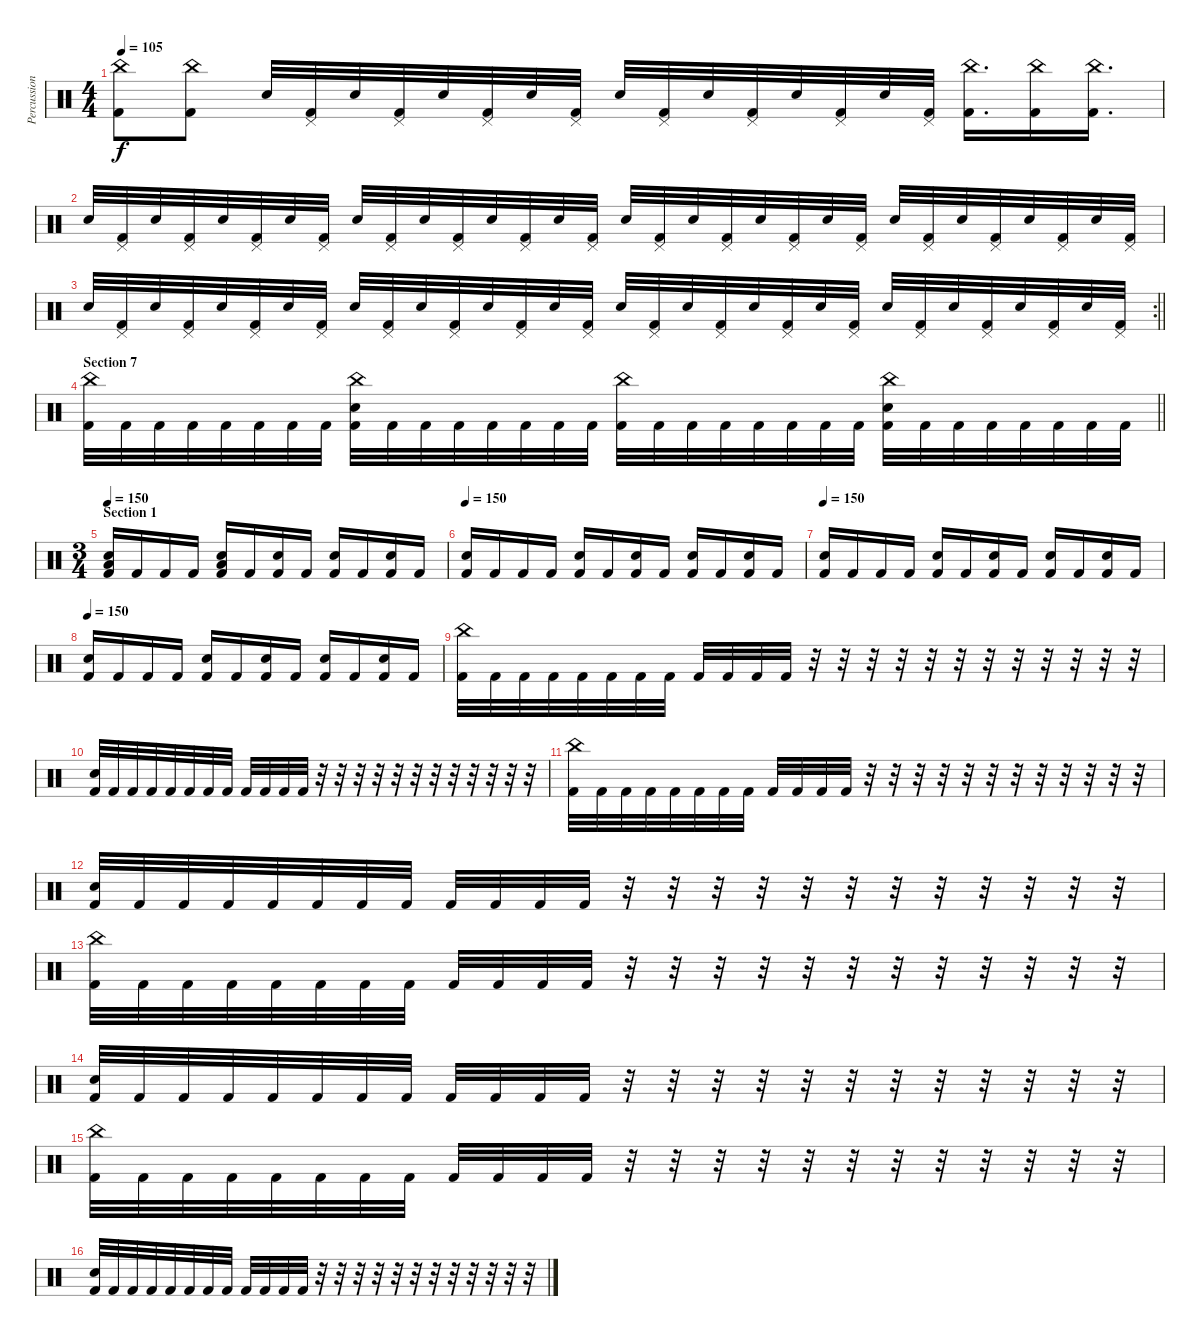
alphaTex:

\track ("Percussions" "Percussion") {instrument percussion}
\staff {score}
\articulation defaults
\ts (4 4)
\tempo 105
\clef neutral
\ks c
("China (hit)" "Kick (hit) 2").8{dy f} ("China (hit)" "Kick (hit) 2").8 "Electric Snare (hit)".32 ("Pedal Hi-Hat (hit)" "Kick (hit) 2").32 "Electric Snare (hit)".32 ("Pedal Hi-Hat (hit)" "Kick (hit) 2").32 "Electric Snare (hit)".32 ("Pedal Hi-Hat (hit)" "Kick (hit) 2").32 "Electric Snare (hit)".32 ("Pedal Hi-Hat (hit)" "Kick (hit) 2").32 "Electric Snare (hit)".32 ("Pedal Hi-Hat (hit)" "Kick (hit) 2").32 "Electric Snare (hit)".32 ("Pedal Hi-Hat (hit)" "Kick (hit) 2").32 "Electric Snare (hit)".32 ("Pedal Hi-Hat (hit)" "Kick (hit) 2").32 "Electric Snare (hit)".32 ("Pedal Hi-Hat (hit)" "Kick (hit) 2").32 ("China (hit)" "Kick (hit) 2").16{d} ("China (hit)" "Kick (hit) 2").16 ("China (hit)" "Kick (hit) 2").16{d} |
"Electric Snare (hit)".32 ("Pedal Hi-Hat (hit)" "Kick (hit) 2").32 "Electric Snare (hit)".32 ("Pedal Hi-Hat (hit)" "Kick (hit) 2").32 "Electric Snare (hit)".32 ("Pedal Hi-Hat (hit)" "Kick (hit) 2").32 "Electric Snare (hit)".32 ("Pedal Hi-Hat (hit)" "Kick (hit) 2").32 "Electric Snare (hit)".32 ("Pedal Hi-Hat (hit)" "Kick (hit) 2").32 "Electric Snare (hit)".32 ("Pedal Hi-Hat (hit)" "Kick (hit) 2").32 "Electric Snare (hit)".32 ("Pedal Hi-Hat (hit)" "Kick (hit) 2").32 "Electric Snare (hit)".32 ("Pedal Hi-Hat (hit)" "Kick (hit) 2").32 "Electric Snare (hit)".32 ("Pedal Hi-Hat (hit)" "Kick (hit) 2").32 "Electric Snare (hit)".32 ("Pedal Hi-Hat (hit)" "Kick (hit) 2").32 "Electric Snare (hit)".32 ("Pedal Hi-Hat (hit)" "Kick (hit) 2").32 "Electric Snare (hit)".32 ("Pedal Hi-Hat (hit)" "Kick (hit) 2").32 "Electric Snare (hit)".32 ("Pedal Hi-Hat (hit)" "Kick (hit) 2").32 "Electric Snare (hit)".32 ("Pedal Hi-Hat (hit)" "Kick (hit) 2").32 "Electric Snare (hit)".32 ("Pedal Hi-Hat (hit)" "Kick (hit) 2").32 "Electric Snare (hit)".32 ("Pedal Hi-Hat (hit)" "Kick (hit) 2").32 |
\rc 2
\barLineRight lightlight "Electric Snare (hit)".32
("Pedal Hi-Hat (hit)" "Kick (hit) 2").32 "Electric Snare (hit)".32 ("Pedal Hi-Hat (hit)" "Kick (hit) 2").32 "Electric Snare (hit)".32 ("Pedal Hi-Hat (hit)" "Kick (hit) 2").32 "Electric Snare (hit)".32 ("Pedal Hi-Hat (hit)" "Kick (hit) 2").32 "Electric Snare (hit)".32 ("Pedal Hi-Hat (hit)" "Kick (hit) 2").32 "Electric Snare (hit)".32 ("Pedal Hi-Hat (hit)" "Kick (hit) 2").32 "Electric Snare (hit)".32 ("Pedal Hi-Hat (hit)" "Kick (hit) 2").32 "Electric Snare (hit)".32 ("Pedal Hi-Hat (hit)" "Kick (hit) 2").32 "Electric Snare (hit)".32 ("Pedal Hi-Hat (hit)" "Kick (hit) 2").32 "Electric Snare (hit)".32 ("Pedal Hi-Hat (hit)" "Kick (hit) 2").32 "Electric Snare (hit)".32 ("Pedal Hi-Hat (hit)" "Kick (hit) 2").32 "Electric Snare (hit)".32 ("Pedal Hi-Hat (hit)" "Kick (hit) 2").32 "Electric Snare (hit)".32 ("Pedal Hi-Hat (hit)" "Kick (hit) 2").32 "Electric Snare (hit)".32 ("Pedal Hi-Hat (hit)" "Kick (hit) 2").32 "Electric Snare (hit)".32 ("Pedal Hi-Hat (hit)" "Kick (hit) 2").32 "Electric Snare (hit)".32 ("Pedal Hi-Hat (hit)" "Kick (hit) 2").32 |
\section ("" "Section 7")
\barLineRight lightlight
("China (hit)" "Kick (hit) 2").32 "Kick (hit) 2".32 "Kick (hit) 2".32 "Kick (hit) 2".32 "Kick (hit) 2".32 "Kick (hit) 2".32 "Kick (hit) 2".32 "Kick (hit) 2".32 ("China (hit)" "Electric Snare (hit)" "Kick (hit) 2").32 "Kick (hit) 2".32 "Kick (hit) 2".32 "Kick (hit) 2".32 "Kick (hit) 2".32 "Kick (hit) 2".32 "Kick (hit) 2".32 "Kick (hit) 2".32 ("China (hit)" "Kick (hit) 2").32 "Kick (hit) 2".32 "Kick (hit) 2".32 "Kick (hit) 2".32 "Kick (hit) 2".32 "Kick (hit) 2".32 "Kick (hit) 2".32 "Kick (hit) 2".32 ("China (hit)" "Electric Snare (hit)" "Kick (hit) 2").32 "Kick (hit) 2".32 "Kick (hit) 2".32 "Kick (hit) 2".32 "Kick (hit) 2".32 "Kick (hit) 2".32 "Kick (hit) 2".32 "Kick (hit) 2".32 |
\ts (3 4)
\section ("" "Section 1")
\tempo 150
("Electric Snare (hit)" "Low Floor Tom (hit)" "Kick (hit) 2").16 "Kick (hit) 2".16 "Kick (hit) 2".16 "Kick (hit) 2".16 ("Electric Snare (hit)" "Low Floor Tom (hit)" "Kick (hit) 2").16 "Kick (hit) 2".16 ("Electric Snare (hit)" "Kick (hit) 2").16 "Kick (hit) 2".16 ("Electric Snare (hit)" "Kick (hit) 2").16 "Kick (hit) 2".16 ("Electric Snare (hit)" "Kick (hit) 2").16 "Kick (hit) 2".16 |
\tempo 150
("Electric Snare (hit)" "Kick (hit) 2").16 "Kick (hit) 2".16 "Kick (hit) 2".16 "Kick (hit) 2".16 ("Electric Snare (hit)" "Kick (hit) 2").16 "Kick (hit) 2".16 ("Electric Snare (hit)" "Kick (hit) 2").16 "Kick (hit) 2".16 ("Electric Snare (hit)" "Kick (hit) 2").16 "Kick (hit) 2".16 ("Electric Snare (hit)" "Kick (hit) 2").16 "Kick (hit) 2".16 |
\tempo 150
("Electric Snare (hit)" "Kick (hit) 2").16 "Kick (hit) 2".16 "Kick (hit) 2".16 "Kick (hit) 2".16 ("Electric Snare (hit)" "Kick (hit) 2").16 "Kick (hit) 2".16 ("Electric Snare (hit)" "Kick (hit) 2").16 "Kick (hit) 2".16 ("Electric Snare (hit)" "Kick (hit) 2").16 "Kick (hit) 2".16 ("Electric Snare (hit)" "Kick (hit) 2").16 "Kick (hit) 2".16 |
\tempo 150
("Electric Snare (hit)" "Kick (hit) 2").16 "Kick (hit) 2".16 "Kick (hit) 2".16 "Kick (hit) 2".16 ("Electric Snare (hit)" "Kick (hit) 2").16 "Kick (hit) 2".16 ("Electric Snare (hit)" "Kick (hit) 2").16 "Kick (hit) 2".16 ("Electric Snare (hit)" "Kick (hit) 2").16 "Kick (hit) 2".16 ("Electric Snare (hit)" "Kick (hit) 2").16 "Kick (hit) 2".16 |
("China (hit)" "Kick (hit) 2").32 "Kick (hit) 2".32 "Kick (hit) 2".32 "Kick (hit) 2".32 "Kick (hit) 2".32 "Kick (hit) 2".32 "Kick (hit) 2".32 "Kick (hit) 2".32 "Kick (hit) 2".32 "Kick (hit) 2".32 "Kick (hit) 2".32 "Kick (hit) 2".32 r.32 r.32 r.32 r.32 r.32 r.32 r.32 r.32 r.32 r.32 r.32 r.32 |
("Electric Snare (hit)" "Kick (hit) 2").32 "Kick (hit) 2".32 "Kick (hit) 2".32 "Kick (hit) 2".32 "Kick (hit) 2".32 "Kick (hit) 2".32 "Kick (hit) 2".32 "Kick (hit) 2".32 "Kick (hit) 2".32 "Kick (hit) 2".32 "Kick (hit) 2".32 "Kick (hit) 2".32 r.32 r.32 r.32 r.32 r.32 r.32 r.32 r.32 r.32 r.32 r.32 r.32 |
("China (hit)" "Kick (hit) 2").32 "Kick (hit) 2".32 "Kick (hit) 2".32 "Kick (hit) 2".32 "Kick (hit) 2".32 "Kick (hit) 2".32 "Kick (hit) 2".32 "Kick (hit) 2".32 "Kick (hit) 2".32 "Kick (hit) 2".32 "Kick (hit) 2".32 "Kick (hit) 2".32 r.32 r.32 r.32 r.32 r.32 r.32 r.32 r.32 r.32 r.32 r.32 r.32 |
("Electric Snare (hit)" "Kick (hit) 2").32 "Kick (hit) 2".32 "Kick (hit) 2".32 "Kick (hit) 2".32 "Kick (hit) 2".32 "Kick (hit) 2".32 "Kick (hit) 2".32 "Kick (hit) 2".32 "Kick (hit) 2".32 "Kick (hit) 2".32 "Kick (hit) 2".32 "Kick (hit) 2".32 r.32 r.32 r.32 r.32 r.32 r.32 r.32 r.32 r.32 r.32 r.32 r.32 |
("China (hit)" "Kick (hit) 2").32 "Kick (hit) 2".32 "Kick (hit) 2".32 "Kick (hit) 2".32 "Kick (hit) 2".32 "Kick (hit) 2".32 "Kick (hit) 2".32 "Kick (hit) 2".32 "Kick (hit) 2".32 "Kick (hit) 2".32 "Kick (hit) 2".32 "Kick (hit) 2".32 r.32 r.32 r.32 r.32 r.32 r.32 r.32 r.32 r.32 r.32 r.32 r.32 |
("Electric Snare (hit)" "Kick (hit) 2").32 "Kick (hit) 2".32 "Kick (hit) 2".32 "Kick (hit) 2".32 "Kick (hit) 2".32 "Kick (hit) 2".32 "Kick (hit) 2".32 "Kick (hit) 2".32 "Kick (hit) 2".32 "Kick (hit) 2".32 "Kick (hit) 2".32 "Kick (hit) 2".32 r.32 r.32 r.32 r.32 r.32 r.32 r.32 r.32 r.32 r.32 r.32 r.32 |
("China (hit)" "Kick (hit) 2").32 "Kick (hit) 2".32 "Kick (hit) 2".32 "Kick (hit) 2".32 "Kick (hit) 2".32 "Kick (hit) 2".32 "Kick (hit) 2".32 "Kick (hit) 2".32 "Kick (hit) 2".32 "Kick (hit) 2".32 "Kick (hit) 2".32 "Kick (hit) 2".32 r.32 r.32 r.32 r.32 r.32 r.32 r.32 r.32 r.32 r.32 r.32 r.32 |
("Electric Snare (hit)" "Kick (hit) 2").32 "Kick (hit) 2".32 "Kick (hit) 2".32 "Kick (hit) 2".32 "Kick (hit) 2".32 "Kick (hit) 2".32 "Kick (hit) 2".32 "Kick (hit) 2".32 "Kick (hit) 2".32 "Kick (hit) 2".32 "Kick (hit) 2".32 "Kick (hit) 2".32 r.32 r.32 r.32 r.32 r.32 r.32 r.32 r.32 r.32 r.32 r.32 r.32
